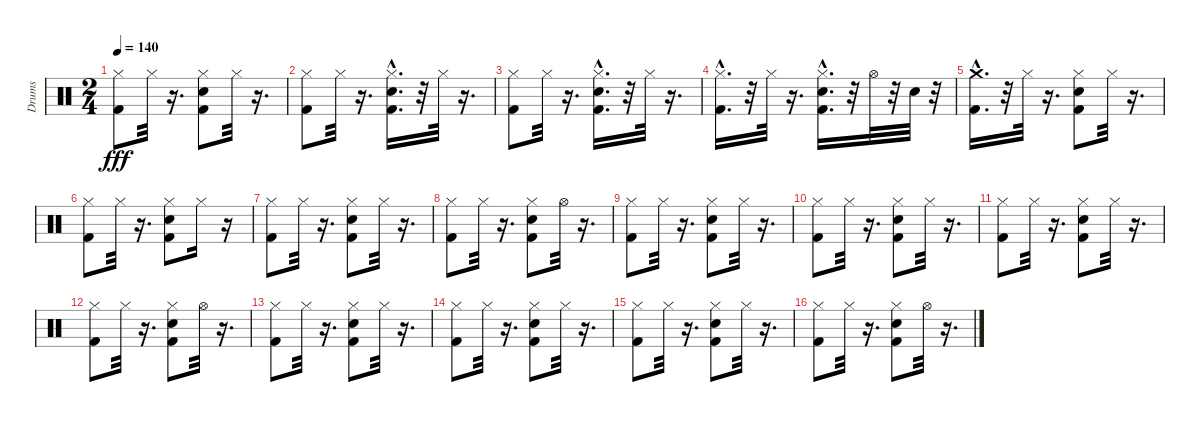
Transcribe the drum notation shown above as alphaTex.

\track ("Drums" "Drums") {instrument percussion}
\staff {score}
\articulation defaults
\ts (2 4)
\tempo 140
\clef neutral
\ks c
("Kick (hit) 2" "Hi-Hat (closed)").8{dy fff} "Hi-Hat (closed)".32 r.16{d} ("Snare (hit) 2" "Kick (hit) 2" "Hi-Hat (closed)").8 "Hi-Hat (closed)".32 r.16{d} |
("Kick (hit) 2" "Hi-Hat (closed)").8 "Hi-Hat (closed)".32 r.16{d} ("Snare (hit) 2"{hac} "Kick (hit) 2"{hac} "Hi-Hat (closed)").16{d} r.32 "Hi-Hat (closed)".32 r.16{d} |
("Kick (hit) 2" "Hi-Hat (closed)").8 "Hi-Hat (closed)".32 r.16{d} ("Hi-Hat (closed)" "Snare (hit) 2"{hac} "Kick (hit) 2"{hac}).16{d} r.32 "Hi-Hat (closed)".32 r.16{d} |
("Kick (hit) 2"{hac} "Hi-Hat (closed)").16{d} r.32 "Hi-Hat (closed)".32 r.16{d} ("Snare (hit) 2"{hac} "Kick (hit) 2"{hac} "Hi-Hat (closed)").16{d} r.32 "Hi-Hat (open)".32 r.32 "Snare (hit) 2".32 r.32 |
("Kick (hit) 2"{hac} "Crash medium (hit)").16{d} r.32 "Hi-Hat (closed)".32 r.16{d} ("Kick (hit) 2" "Snare (hit) 2" "Hi-Hat (closed)").8 "Hi-Hat (closed)".32 r.16{d} |
("Kick (hit) 2" "Hi-Hat (closed)").8 "Hi-Hat (closed)".32 r.16{d} ("Snare (hit) 2" "Kick (hit) 2" "Hi-Hat (closed)").8 "Hi-Hat (closed)".16 r.16 |
("Kick (hit) 2" "Hi-Hat (closed)").8 "Hi-Hat (closed)".32 r.16{d} ("Snare (hit) 2" "Kick (hit) 2" "Hi-Hat (closed)").8 "Hi-Hat (closed)".32 r.16{d} |
("Kick (hit) 2" "Hi-Hat (closed)").8 "Hi-Hat (closed)".32 r.16{d} ("Kick (hit) 2" "Snare (hit) 2" "Hi-Hat (closed)").8 "Hi-Hat (open)".32 r.16{d} |
("Kick (hit) 2" "Hi-Hat (closed)").8 "Hi-Hat (closed)".32 r.16{d} ("Snare (hit) 2" "Kick (hit) 2" "Hi-Hat (closed)").8 "Hi-Hat (closed)".32 r.16{d} |
("Kick (hit) 2" "Hi-Hat (closed)").8 "Hi-Hat (closed)".32 r.16{d} ("Hi-Hat (closed)" "Snare (hit) 2" "Kick (hit) 2").8 "Hi-Hat (closed)".32 r.16{d} |
("Kick (hit) 2" "Hi-Hat (closed)").8 "Hi-Hat (closed)".32 r.16{d} ("Snare (hit) 2" "Kick (hit) 2" "Hi-Hat (closed)").8 "Hi-Hat (closed)".32 r.16{d} |
("Kick (hit) 2" "Hi-Hat (closed)").8 "Hi-Hat (closed)".32 r.16{d} ("Hi-Hat (closed)" "Kick (hit) 2" "Snare (hit) 2").8 "Hi-Hat (open)".32 r.16{d} |
("Kick (hit) 2" "Hi-Hat (closed)").8 "Hi-Hat (closed)".32 r.16{d} ("Kick (hit) 2" "Hi-Hat (closed)" "Snare (hit) 2").8 "Hi-Hat (closed)".32 r.16{d} |
("Kick (hit) 2" "Hi-Hat (closed)").8 "Hi-Hat (closed)".32 r.16{d} ("Snare (hit) 2" "Kick (hit) 2" "Hi-Hat (closed)").8 "Hi-Hat (closed)".32 r.16{d} |
("Kick (hit) 2" "Hi-Hat (closed)").8 "Hi-Hat (closed)".32 r.16{d} ("Snare (hit) 2" "Kick (hit) 2" "Hi-Hat (closed)").8 "Hi-Hat (closed)".32 r.16{d} |
("Kick (hit) 2" "Hi-Hat (closed)").8 "Hi-Hat (closed)".32 r.16{d} ("Snare (hit) 2" "Kick (hit) 2" "Hi-Hat (closed)").8 "Hi-Hat (open)".32 r.16{d}
